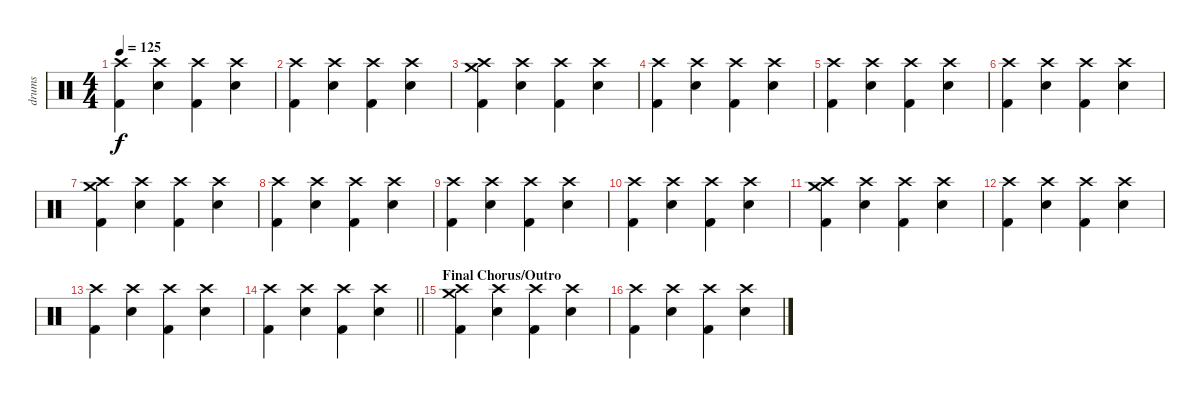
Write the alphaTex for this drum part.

\track ("drums" "drums") {instrument percussion}
\staff {score}
\articulation defaults
\ts (4 4)
\tempo 125
\clef neutral
\ks c
("Crash high (hit)" "Kick (hit) 2").4{dy f} ("Crash high (hit)" "Snare (hit) 2").4 ("Crash high (hit)" "Kick (hit) 2").4 ("Crash high (hit)" "Snare (hit) 2").4 |
("Crash high (hit)" "Kick (hit) 2").4 ("Crash high (hit)" "Snare (hit) 2").4 ("Crash high (hit)" "Kick (hit) 2").4 ("Crash high (hit)" "Snare (hit) 2").4 |
("Crash high (hit)" "Crash medium (hit)" "Kick (hit) 2").4 ("Crash high (hit)" "Snare (hit) 2").4 ("Crash high (hit)" "Kick (hit) 2").4 ("Crash high (hit)" "Snare (hit) 2").4 |
("Crash high (hit)" "Kick (hit) 2").4 ("Crash high (hit)" "Snare (hit) 2").4 ("Crash high (hit)" "Kick (hit) 2").4 ("Crash high (hit)" "Snare (hit) 2").4 |
("Crash high (hit)" "Kick (hit) 2").4 ("Crash high (hit)" "Snare (hit) 2").4 ("Crash high (hit)" "Kick (hit) 2").4 ("Crash high (hit)" "Snare (hit) 2").4 |
("Crash high (hit)" "Kick (hit) 2").4 ("Crash high (hit)" "Snare (hit) 2").4 ("Crash high (hit)" "Kick (hit) 2").4 ("Crash high (hit)" "Snare (hit) 2").4 |
("Crash high (hit)" "Crash medium (hit)" "Kick (hit) 2").4 ("Crash high (hit)" "Snare (hit) 2").4 ("Crash high (hit)" "Kick (hit) 2").4 ("Crash high (hit)" "Snare (hit) 2").4 |
("Crash high (hit)" "Kick (hit) 2").4 ("Crash high (hit)" "Snare (hit) 2").4 ("Crash high (hit)" "Kick (hit) 2").4 ("Crash high (hit)" "Snare (hit) 2").4 |
("Crash high (hit)" "Kick (hit) 2").4 ("Crash high (hit)" "Snare (hit) 2").4 ("Crash high (hit)" "Kick (hit) 2").4 ("Crash high (hit)" "Snare (hit) 2").4 |
("Crash high (hit)" "Kick (hit) 2").4 ("Crash high (hit)" "Snare (hit) 2").4 ("Crash high (hit)" "Kick (hit) 2").4 ("Crash high (hit)" "Snare (hit) 2").4 |
("Crash high (hit)" "Crash medium (hit)" "Kick (hit) 2").4 ("Crash high (hit)" "Snare (hit) 2").4 ("Crash high (hit)" "Kick (hit) 2").4 ("Crash high (hit)" "Snare (hit) 2").4 |
("Crash high (hit)" "Kick (hit) 2").4 ("Crash high (hit)" "Snare (hit) 2").4 ("Crash high (hit)" "Kick (hit) 2").4 ("Crash high (hit)" "Snare (hit) 2").4 |
("Crash high (hit)" "Kick (hit) 2").4 ("Crash high (hit)" "Snare (hit) 2").4 ("Crash high (hit)" "Kick (hit) 2").4 ("Crash high (hit)" "Snare (hit) 2").4 |
\barLineRight lightlight
("Crash high (hit)" "Kick (hit) 2").4 ("Crash high (hit)" "Snare (hit) 2").4 ("Crash high (hit)" "Kick (hit) 2").4 ("Crash high (hit)" "Snare (hit) 2").4 |
\section ("" "Final Chorus/Outro")
("Crash high (hit)" "Crash medium (hit)" "Kick (hit) 2").4 ("Crash high (hit)" "Snare (hit) 2").4 ("Crash high (hit)" "Kick (hit) 2").4 ("Crash high (hit)" "Snare (hit) 2").4 |
("Crash high (hit)" "Kick (hit) 2").4 ("Crash high (hit)" "Snare (hit) 2").4 ("Crash high (hit)" "Kick (hit) 2").4 ("Crash high (hit)" "Snare (hit) 2").4
